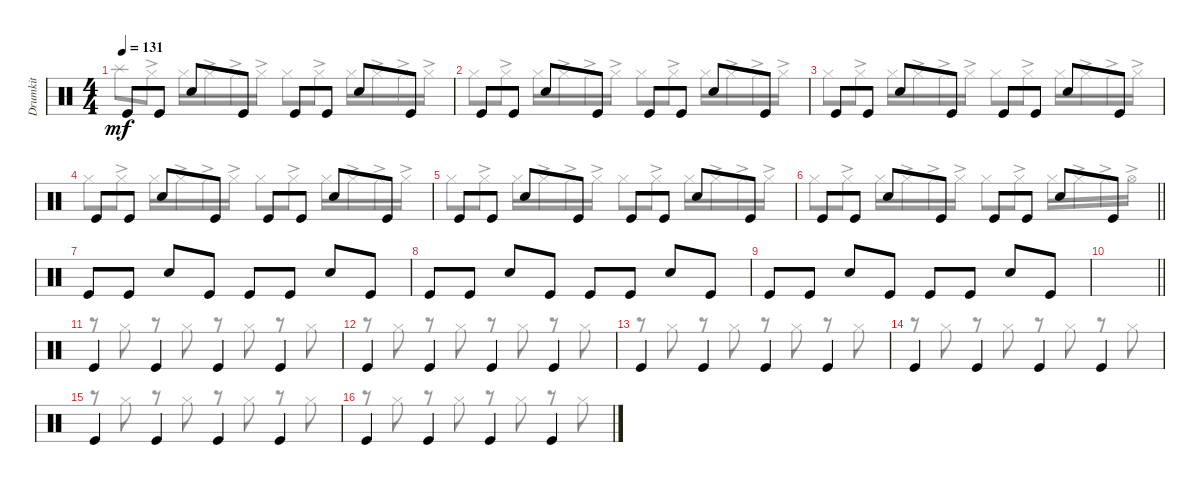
\track ("Drumkit" "Drumkit") {instrument percussion}
\staff {score}
\articulation defaults
\voice
\ts (4 4)
\tempo 131
\clef neutral
\ks c "Kick (hit)".8{dy mf} "Kick (hit)".8 "Snare (hit) 2".8 "Kick (hit)".8 "Kick (hit)".8 "Kick (hit)".8 "Snare (hit) 2".8 "Kick (hit)".8
|
"Kick (hit)".8 "Kick (hit)".8 "Snare (hit) 2".8 "Kick (hit)".8 "Kick (hit)".8 "Kick (hit)".8 "Snare (hit) 2".8 "Kick (hit)".8 |
"Kick (hit)".8 "Kick (hit)".8 "Snare (hit) 2".8 "Kick (hit)".8 "Kick (hit)".8 "Kick (hit)".8 "Snare (hit) 2".8 "Kick (hit)".8 |
"Kick (hit)".8 "Kick (hit)".8 "Snare (hit) 2".8 "Kick (hit)".8 "Kick (hit)".8 "Kick (hit)".8 "Snare (hit) 2".8 "Kick (hit)".8 |
"Kick (hit)".8 "Kick (hit)".8 "Snare (hit) 2".8 "Kick (hit)".8 "Kick (hit)".8 "Kick (hit)".8 "Snare (hit) 2".8 "Kick (hit)".8 |
\barLineRight lightlight "Kick (hit)".8 "Kick (hit)".8 "Snare (hit) 2".8 "Kick (hit)".8 "Kick (hit)".8 "Kick (hit)".8 "Snare (hit) 2".8 "Kick (hit)".8
|
"Kick (hit)".8 "Kick (hit)".8 "Snare (hit) 2".8 "Kick (hit)".8 "Kick (hit)".8 "Kick (hit)".8 "Snare (hit) 2".8 "Kick (hit)".8 |
"Kick (hit)".8 "Kick (hit)".8 "Snare (hit) 2".8 "Kick (hit)".8 "Kick (hit)".8 "Kick (hit)".8 "Snare (hit) 2".8 "Kick (hit)".8 |
"Kick (hit)".8 "Kick (hit)".8 "Snare (hit) 2".8 "Kick (hit)".8 "Kick (hit)".8 "Kick (hit)".8 "Snare (hit) 2".8 "Kick (hit)".8 |
\barLineRight lightlight
|
"Kick (hit)".4 "Kick (hit)".4 "Kick (hit)".4 "Kick (hit)".4 |
"Kick (hit)".4 "Kick (hit)".4 "Kick (hit)".4 "Kick (hit)".4 |
"Kick (hit)".4 "Kick (hit)".4 "Kick (hit)".4 "Kick (hit)".4 |
"Kick (hit)".4 "Kick (hit)".4 "Kick (hit)".4 "Kick (hit)".4 |
"Kick (hit)".4 "Kick (hit)".4 "Kick (hit)".4 "Kick (hit)".4 |
"Kick (hit)".4 "Kick (hit)".4 "Kick (hit)".4 "Kick (hit)".4
\voice
\clef neutral
\ottava regular
\simile none
\ks c "Splash (hit)".8{dy mf} "Hi-Hat (closed)"{ac}.8 "Hi-Hat (closed)".16 "Hi-Hat (closed)"{ac}.16 "Hi-Hat (closed)"{ac}.16 "Hi-Hat (closed)"{ac}.16 "Hi-Hat (closed)".8 "Hi-Hat (closed)"{ac}.8 "Hi-Hat (closed)".16 "Hi-Hat (closed)"{ac}.16 "Hi-Hat (closed)"{ac}.16 "Hi-Hat (closed)"{ac}.16
|
"Hi-Hat (closed)".8 "Hi-Hat (closed)"{ac}.8 "Hi-Hat (closed)".16 "Hi-Hat (closed)"{ac}.16 "Hi-Hat (closed)"{ac}.16 "Hi-Hat (closed)"{ac}.16 "Hi-Hat (closed)".8 "Hi-Hat (closed)"{ac}.8 "Hi-Hat (closed)".16 "Hi-Hat (closed)"{ac}.16 "Hi-Hat (closed)"{ac}.16 "Hi-Hat (closed)"{ac}.16 |
"Hi-Hat (closed)".8 "Hi-Hat (closed)"{ac}.8 "Hi-Hat (closed)".16 "Hi-Hat (closed)"{ac}.16 "Hi-Hat (closed)"{ac}.16 "Hi-Hat (closed)"{ac}.16 "Hi-Hat (closed)".8 "Hi-Hat (closed)"{ac}.8 "Hi-Hat (closed)".16 "Hi-Hat (closed)"{ac}.16 "Hi-Hat (closed)"{ac}.16 "Hi-Hat (closed)"{ac}.16 |
"Hi-Hat (closed)".8 "Hi-Hat (closed)"{ac}.8 "Hi-Hat (closed)".16 "Hi-Hat (closed)"{ac}.16 "Hi-Hat (closed)"{ac}.16 "Hi-Hat (closed)"{ac}.16 "Hi-Hat (closed)".8 "Hi-Hat (closed)"{ac}.8 "Hi-Hat (closed)".16 "Hi-Hat (closed)"{ac}.16 "Hi-Hat (closed)"{ac}.16 "Hi-Hat (closed)"{ac}.16 |
"Hi-Hat (closed)".8 "Hi-Hat (closed)"{ac}.8 "Hi-Hat (closed)".16 "Hi-Hat (closed)"{ac}.16 "Hi-Hat (closed)"{ac}.16 "Hi-Hat (closed)"{ac}.16 "Hi-Hat (closed)".8 "Hi-Hat (closed)"{ac}.8 "Hi-Hat (closed)".16 "Hi-Hat (closed)"{ac}.16 "Hi-Hat (closed)"{ac}.16 "Hi-Hat (closed)"{ac}.16 |
\barLineRight lightlight "Hi-Hat (closed)".8 "Hi-Hat (closed)"{ac}.8 "Hi-Hat (closed)".16 "Hi-Hat (closed)"{ac}.16 "Hi-Hat (closed)"{ac}.16 "Hi-Hat (closed)"{ac}.16 "Hi-Hat (closed)".8 "Hi-Hat (closed)"{ac}.8 "Hi-Hat (closed)".16 "Hi-Hat (closed)"{ac}.16 "Hi-Hat (closed)"{ac}.16 "Hi-Hat (open)"{ac}.16
|
|
|
|
\barLineRight lightlight
|
r.8 "Hi-Hat (closed)".8 r.8 "Hi-Hat (closed)".8 r.8 "Hi-Hat (closed)".8 r.8 "Hi-Hat (closed)".8 |
r.8 "Hi-Hat (closed)".8 r.8 "Hi-Hat (closed)".8 r.8 "Hi-Hat (closed)".8 r.8 "Hi-Hat (closed)".8 |
r.8 "Hi-Hat (closed)".8 r.8 "Hi-Hat (closed)".8 r.8 "Hi-Hat (closed)".8 r.8 "Hi-Hat (closed)".8 |
r.8 "Hi-Hat (closed)".8 r.8 "Hi-Hat (closed)".8 r.8 "Hi-Hat (closed)".8 r.8 "Hi-Hat (closed)".8 |
r.8 "Hi-Hat (closed)".8 r.8 "Hi-Hat (closed)".8 r.8 "Hi-Hat (closed)".8 r.8 "Hi-Hat (closed)".8 |
r.8 "Hi-Hat (closed)".8 r.8 "Hi-Hat (closed)".8 r.8 "Hi-Hat (closed)".8 r.8 "Hi-Hat (closed)".8
